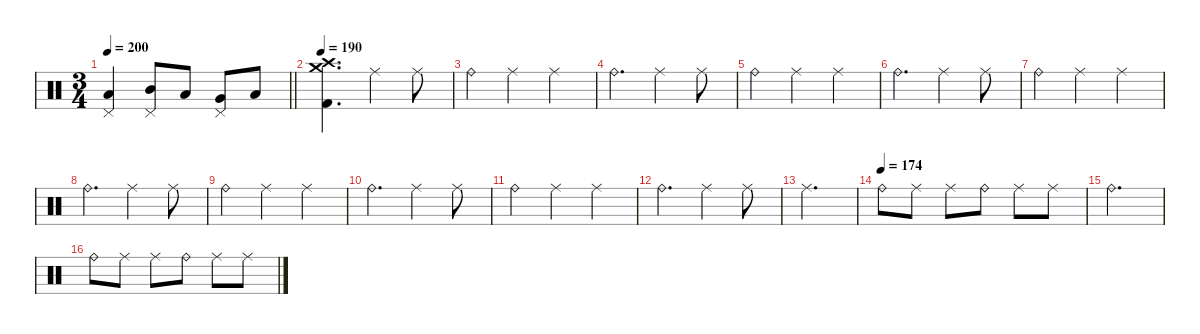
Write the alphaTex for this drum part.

\defaultSystemsLayout 4
\hideDynamics
\bracketExtendMode nobrackets
\singleTrackTrackNamePolicy hidden
\multiTrackTrackNamePolicy hidden
\firstSystemTrackNameMode fullname
\otherSystemsTrackNameOrientation horizontal
\track ("Drums" "drm.") {defaultSystemsLayout 4 instrument percussion}
\staff {score}
\articulation defaults
\ts (3 4)
\tempo 200
\clef neutral
\barLineRight lightlight
\ks c
("Pedal Hi-Hat (hit)" "Low Floor Tom (hit)").4{dy f beam Up} ("Pedal Hi-Hat (hit)" "Mid Tom (hit)").8{beam Up} "Low Tom (hit)".8{beam Up} ("Pedal Hi-Hat (hit)" "Very Low Tom (hit)").8{beam Up} "Low Floor Tom (hit)".8{beam Up} |
\tempo 190
("Crash high (hit)" "Crash medium (hit)" "Kick (hit) 2").4{d beam Down} "Ride (middle)".4{beam Down} "Ride (middle)".8{beam Down} |
"Ride (bell)".4{beam Down} "Ride (middle)".4{beam Down} "Ride (middle)".4{beam Down} |
"Ride (bell)".4{d beam Down} "Ride (middle)".4{beam Down} "Ride (middle)".8{beam Down} |
"Ride (bell)".4{beam Down} "Ride (middle)".4{beam Down} "Ride (middle)".4{beam Down} |
"Ride (bell)".4{d beam Down} "Ride (middle)".4{beam Down} "Ride (middle)".8{beam Down} |
"Ride (bell)".4{beam Down} "Ride (middle)".4{beam Down} "Ride (middle)".4{beam Down} |
"Ride (bell)".4{d beam Down} "Ride (middle)".4{beam Down} "Ride (middle)".8{beam Down} |
"Ride (bell)".4{beam Down} "Ride (middle)".4{beam Down} "Ride (middle)".4{beam Down} |
"Ride (bell)".4{d beam Down} "Ride (middle)".4{beam Down} "Ride (middle)".8{beam Down} |
"Ride (bell)".4{beam Down} "Ride (middle)".4{beam Down} "Ride (middle)".4{beam Down} |
"Ride (bell)".4{d beam Down} "Ride (middle)".4{beam Down} "Ride (middle)".8{beam Down} |
"Ride (middle)".2{d beam Down} |
\tempo (174)
"Ride (bell)".8{beam Down} "Ride (middle)".8{beam Down} "Ride (middle)".8{beam Down} "Ride (bell)".8{beam Down} "Ride (middle)".8{beam Down} "Ride (middle)".8{beam Down} |
"Ride (bell)".2{d beam Down} |
"Ride (bell)".8{beam Down} "Ride (middle)".8{beam Down} "Ride (middle)".8{beam Down} "Ride (bell)".8{beam Down} "Ride (middle)".8{beam Down} "Ride (middle)".8{beam Down}
